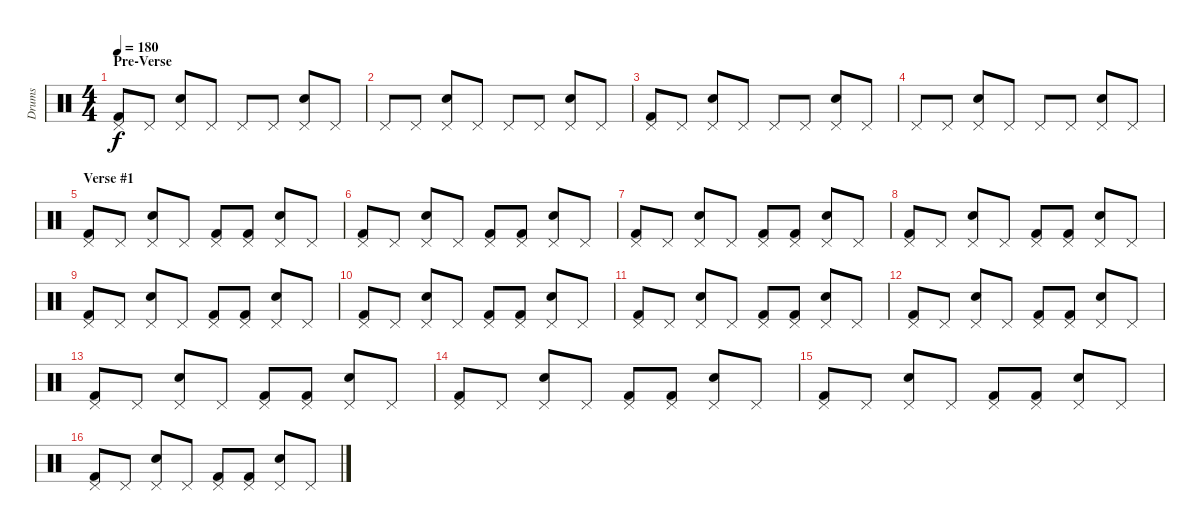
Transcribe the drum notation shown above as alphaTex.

\track ("Drums" "Drums") {instrument percussion}
\staff {score}
\articulation defaults
\ts (4 4)
\section ("" "Pre-Verse")
\tempo 180
\clef neutral
\ks c
("Pedal Hi-Hat (hit)" "Kick (hit) 2").8{dy f} "Pedal Hi-Hat (hit)".8 ("Pedal Hi-Hat (hit)" "Electric Snare (hit)").8 "Pedal Hi-Hat (hit)".8 "Pedal Hi-Hat (hit)".8 "Pedal Hi-Hat (hit)".8 ("Pedal Hi-Hat (hit)" "Electric Snare (hit)").8 "Pedal Hi-Hat (hit)".8 |
"Pedal Hi-Hat (hit)".8 "Pedal Hi-Hat (hit)".8 ("Pedal Hi-Hat (hit)" "Electric Snare (hit)").8 "Pedal Hi-Hat (hit)".8 "Pedal Hi-Hat (hit)".8 "Pedal Hi-Hat (hit)".8 ("Pedal Hi-Hat (hit)" "Electric Snare (hit)").8 "Pedal Hi-Hat (hit)".8 |
("Pedal Hi-Hat (hit)" "Kick (hit) 2").8 "Pedal Hi-Hat (hit)".8 ("Pedal Hi-Hat (hit)" "Electric Snare (hit)").8 "Pedal Hi-Hat (hit)".8 "Pedal Hi-Hat (hit)".8 "Pedal Hi-Hat (hit)".8 ("Pedal Hi-Hat (hit)" "Electric Snare (hit)").8 "Pedal Hi-Hat (hit)".8 |
"Pedal Hi-Hat (hit)".8 "Pedal Hi-Hat (hit)".8 ("Pedal Hi-Hat (hit)" "Electric Snare (hit)").8 "Pedal Hi-Hat (hit)".8 "Pedal Hi-Hat (hit)".8 "Pedal Hi-Hat (hit)".8 ("Pedal Hi-Hat (hit)" "Electric Snare (hit)").8 "Pedal Hi-Hat (hit)".8 |
\section ("" "Verse #1")
("Pedal Hi-Hat (hit)" "Kick (hit) 2").8 "Pedal Hi-Hat (hit)".8 ("Pedal Hi-Hat (hit)" "Electric Snare (hit)").8 "Pedal Hi-Hat (hit)".8 ("Pedal Hi-Hat (hit)" "Kick (hit) 2").8 ("Pedal Hi-Hat (hit)" "Kick (hit) 2").8 ("Pedal Hi-Hat (hit)" "Electric Snare (hit)").8 "Pedal Hi-Hat (hit)".8 |
("Pedal Hi-Hat (hit)" "Kick (hit) 2").8 "Pedal Hi-Hat (hit)".8 ("Pedal Hi-Hat (hit)" "Electric Snare (hit)").8 "Pedal Hi-Hat (hit)".8 ("Pedal Hi-Hat (hit)" "Kick (hit) 2").8 ("Pedal Hi-Hat (hit)" "Kick (hit) 2").8 ("Pedal Hi-Hat (hit)" "Electric Snare (hit)").8 "Pedal Hi-Hat (hit)".8 |
("Pedal Hi-Hat (hit)" "Kick (hit) 2").8 "Pedal Hi-Hat (hit)".8 ("Pedal Hi-Hat (hit)" "Electric Snare (hit)").8 "Pedal Hi-Hat (hit)".8 ("Pedal Hi-Hat (hit)" "Kick (hit) 2").8 ("Pedal Hi-Hat (hit)" "Kick (hit) 2").8 ("Pedal Hi-Hat (hit)" "Electric Snare (hit)").8 "Pedal Hi-Hat (hit)".8 |
("Pedal Hi-Hat (hit)" "Kick (hit) 2").8 "Pedal Hi-Hat (hit)".8 ("Pedal Hi-Hat (hit)" "Electric Snare (hit)").8 "Pedal Hi-Hat (hit)".8 ("Pedal Hi-Hat (hit)" "Kick (hit) 2").8 ("Pedal Hi-Hat (hit)" "Kick (hit) 2").8 ("Pedal Hi-Hat (hit)" "Electric Snare (hit)").8 "Pedal Hi-Hat (hit)".8 |
("Pedal Hi-Hat (hit)" "Kick (hit) 2").8 "Pedal Hi-Hat (hit)".8 ("Pedal Hi-Hat (hit)" "Electric Snare (hit)").8 "Pedal Hi-Hat (hit)".8 ("Pedal Hi-Hat (hit)" "Kick (hit) 2").8 ("Pedal Hi-Hat (hit)" "Kick (hit) 2").8 ("Pedal Hi-Hat (hit)" "Electric Snare (hit)").8 "Pedal Hi-Hat (hit)".8 |
("Pedal Hi-Hat (hit)" "Kick (hit) 2").8 "Pedal Hi-Hat (hit)".8 ("Pedal Hi-Hat (hit)" "Electric Snare (hit)").8 "Pedal Hi-Hat (hit)".8 ("Pedal Hi-Hat (hit)" "Kick (hit) 2").8 ("Pedal Hi-Hat (hit)" "Kick (hit) 2").8 ("Pedal Hi-Hat (hit)" "Electric Snare (hit)").8 "Pedal Hi-Hat (hit)".8 |
("Pedal Hi-Hat (hit)" "Kick (hit) 2").8 "Pedal Hi-Hat (hit)".8 ("Pedal Hi-Hat (hit)" "Electric Snare (hit)").8 "Pedal Hi-Hat (hit)".8 ("Pedal Hi-Hat (hit)" "Kick (hit) 2").8 ("Pedal Hi-Hat (hit)" "Kick (hit) 2").8 ("Pedal Hi-Hat (hit)" "Electric Snare (hit)").8 "Pedal Hi-Hat (hit)".8 |
("Pedal Hi-Hat (hit)" "Kick (hit) 2").8 "Pedal Hi-Hat (hit)".8 ("Pedal Hi-Hat (hit)" "Electric Snare (hit)").8 "Pedal Hi-Hat (hit)".8 ("Pedal Hi-Hat (hit)" "Kick (hit) 2").8 ("Pedal Hi-Hat (hit)" "Kick (hit) 2").8 ("Pedal Hi-Hat (hit)" "Electric Snare (hit)").8 "Pedal Hi-Hat (hit)".8 |
("Pedal Hi-Hat (hit)" "Kick (hit) 2").8 "Pedal Hi-Hat (hit)".8 ("Pedal Hi-Hat (hit)" "Electric Snare (hit)").8 "Pedal Hi-Hat (hit)".8 ("Pedal Hi-Hat (hit)" "Kick (hit) 2").8 ("Pedal Hi-Hat (hit)" "Kick (hit) 2").8 ("Pedal Hi-Hat (hit)" "Electric Snare (hit)").8 "Pedal Hi-Hat (hit)".8 |
("Pedal Hi-Hat (hit)" "Kick (hit) 2").8 "Pedal Hi-Hat (hit)".8 ("Pedal Hi-Hat (hit)" "Electric Snare (hit)").8 "Pedal Hi-Hat (hit)".8 ("Pedal Hi-Hat (hit)" "Kick (hit) 2").8 ("Pedal Hi-Hat (hit)" "Kick (hit) 2").8 ("Pedal Hi-Hat (hit)" "Electric Snare (hit)").8 "Pedal Hi-Hat (hit)".8 |
("Pedal Hi-Hat (hit)" "Kick (hit) 2").8 "Pedal Hi-Hat (hit)".8 ("Pedal Hi-Hat (hit)" "Electric Snare (hit)").8 "Pedal Hi-Hat (hit)".8 ("Pedal Hi-Hat (hit)" "Kick (hit) 2").8 ("Pedal Hi-Hat (hit)" "Kick (hit) 2").8 ("Pedal Hi-Hat (hit)" "Electric Snare (hit)").8 "Pedal Hi-Hat (hit)".8 |
("Pedal Hi-Hat (hit)" "Kick (hit) 2").8 "Pedal Hi-Hat (hit)".8 ("Pedal Hi-Hat (hit)" "Electric Snare (hit)").8 "Pedal Hi-Hat (hit)".8 ("Pedal Hi-Hat (hit)" "Kick (hit) 2").8 ("Pedal Hi-Hat (hit)" "Kick (hit) 2").8 ("Pedal Hi-Hat (hit)" "Electric Snare (hit)").8 "Pedal Hi-Hat (hit)".8
